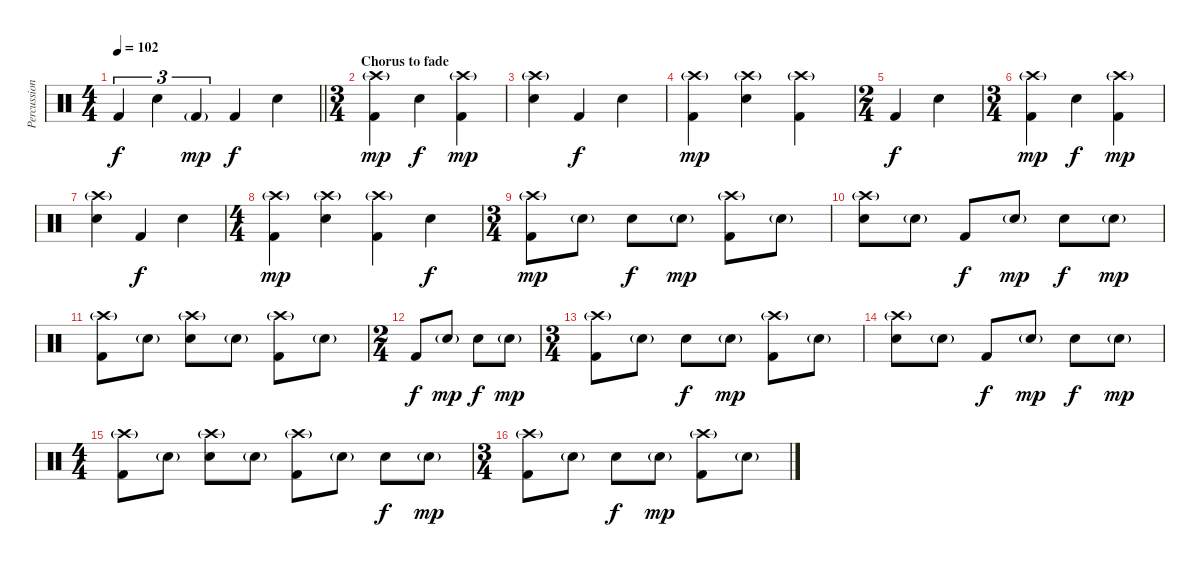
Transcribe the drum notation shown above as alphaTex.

\track ("Percussion" "Percussion") {instrument percussion}
\staff {score}
\articulation defaults
\ts (4 4)
\tempo 102
\clef neutral
\barLineRight lightlight
\ks c "Kick (hit) 2".4{tu (3 2) dy f} "Snare (hit) 2".4{tu (3 2)} "Kick (hit) 2"{g}.4{tu (3 2) dy mp} "Kick (hit) 2".4{dy f} "Snare (hit) 2".4
|
\ts (3 4)
\section ("" "Chorus to fade")
("Crash high (hit)"{g} "Kick (hit) 2").4{dy mp} "Snare (hit) 2".4{dy f} ("Crash high (hit)"{g} "Kick (hit) 2").4{dy mp} |
("Crash high (hit)"{g} "Snare (hit) 2").4 "Kick (hit) 2".4{dy f} "Snare (hit) 2".4 |
("Crash high (hit)"{g} "Kick (hit) 2").4{dy mp} ("Crash high (hit)"{g} "Snare (hit) 2").4 ("Crash high (hit)"{g} "Kick (hit) 2").4 |
\ts (2 4)
"Kick (hit) 2".4{dy f} "Snare (hit) 2".4 |
\ts (3 4)
("Crash high (hit)"{g} "Kick (hit) 2").4{dy mp} "Snare (hit) 2".4{dy f} ("Crash high (hit)"{g} "Kick (hit) 2").4{dy mp} |
("Crash high (hit)"{g} "Snare (hit) 2").4 "Kick (hit) 2".4{dy f} "Snare (hit) 2".4 |
\ts (4 4)
("Crash high (hit)"{g} "Kick (hit) 2").4{dy mp} ("Crash high (hit)"{g} "Snare (hit) 2").4 ("Crash high (hit)"{g} "Kick (hit) 2").4 "Snare (hit) 2".4{dy f} |
\ts (3 4)
("Crash high (hit)"{g} "Kick (hit) 2").8{dy mp} "Hand Clap (hit)"{g}.8 "Snare (hit) 2".8{dy f} "Hand Clap (hit)"{g}.8{dy mp} ("Crash high (hit)"{g} "Kick (hit) 2").8 "Hand Clap (hit)"{g}.8 |
("Crash high (hit)"{g} "Snare (hit) 2").8 "Hand Clap (hit)"{g}.8 "Kick (hit) 2".8{dy f} "Hand Clap (hit)"{g}.8{dy mp} "Snare (hit) 2".8{dy f} "Hand Clap (hit)"{g}.8{dy mp} |
("Crash high (hit)"{g} "Kick (hit) 2").8 "Hand Clap (hit)"{g}.8 ("Crash high (hit)"{g} "Snare (hit) 2").8 "Hand Clap (hit)"{g}.8 ("Crash high (hit)"{g} "Kick (hit) 2").8 "Hand Clap (hit)"{g}.8 |
\ts (2 4)
"Kick (hit) 2".8{dy f} "Hand Clap (hit)"{g}.8{dy mp} "Snare (hit) 2".8{dy f} "Hand Clap (hit)"{g}.8{dy mp} |
\ts (3 4)
("Crash high (hit)"{g} "Kick (hit) 2").8 "Hand Clap (hit)"{g}.8 "Snare (hit) 2".8{dy f} "Hand Clap (hit)"{g}.8{dy mp} ("Crash high (hit)"{g} "Kick (hit) 2").8 "Hand Clap (hit)"{g}.8 |
("Crash high (hit)"{g} "Snare (hit) 2").8 "Hand Clap (hit)"{g}.8 "Kick (hit) 2".8{dy f} "Hand Clap (hit)"{g}.8{dy mp} "Snare (hit) 2".8{dy f} "Hand Clap (hit)"{g}.8{dy mp} |
\ts (4 4)
("Crash high (hit)"{g} "Kick (hit) 2").8 "Hand Clap (hit)"{g}.8 ("Crash high (hit)"{g} "Snare (hit) 2").8 "Hand Clap (hit)"{g}.8 ("Crash high (hit)"{g} "Kick (hit) 2").8 "Hand Clap (hit)"{g}.8 "Snare (hit) 2".8{dy f} "Hand Clap (hit)"{g}.8{dy mp} |
\ts (3 4)
("Crash high (hit)"{g} "Kick (hit) 2").8 "Hand Clap (hit)"{g}.8 "Snare (hit) 2".8{dy f} "Hand Clap (hit)"{g}.8{dy mp} ("Crash high (hit)"{g} "Kick (hit) 2").8 "Hand Clap (hit)"{g}.8
